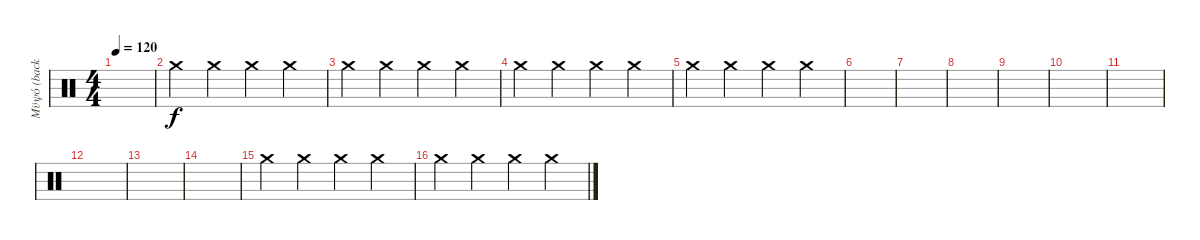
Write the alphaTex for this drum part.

\track ("Μϋψό (back percussion)" "Μϋψό (back") {instrument percussion}
\staff {score}
\articulation defaults
\ts (4 4)
\tempo 120
\clef neutral
\ks c
|
"Crash medium (hit)".4 "Crash medium (hit)".4 "Crash medium (hit)".4 "Crash medium (hit)".4 |
"Crash medium (hit)".4 "Crash medium (hit)".4 "Crash medium (hit)".4 "Crash medium (hit)".4 |
"Crash medium (hit)".4 "Crash medium (hit)".4 "Crash medium (hit)".4 "Crash medium (hit)".4 |
"Crash medium (hit)".4 "Crash medium (hit)".4 "Crash medium (hit)".4 "Crash medium (hit)".4 |
|
|
|
|
|
|
|
|
|
"Crash medium (hit)".4 "Crash medium (hit)".4 "Crash medium (hit)".4 "Crash medium (hit)".4 |
"Crash medium (hit)".4 "Crash medium (hit)".4 "Crash medium (hit)".4 "Crash medium (hit)".4
